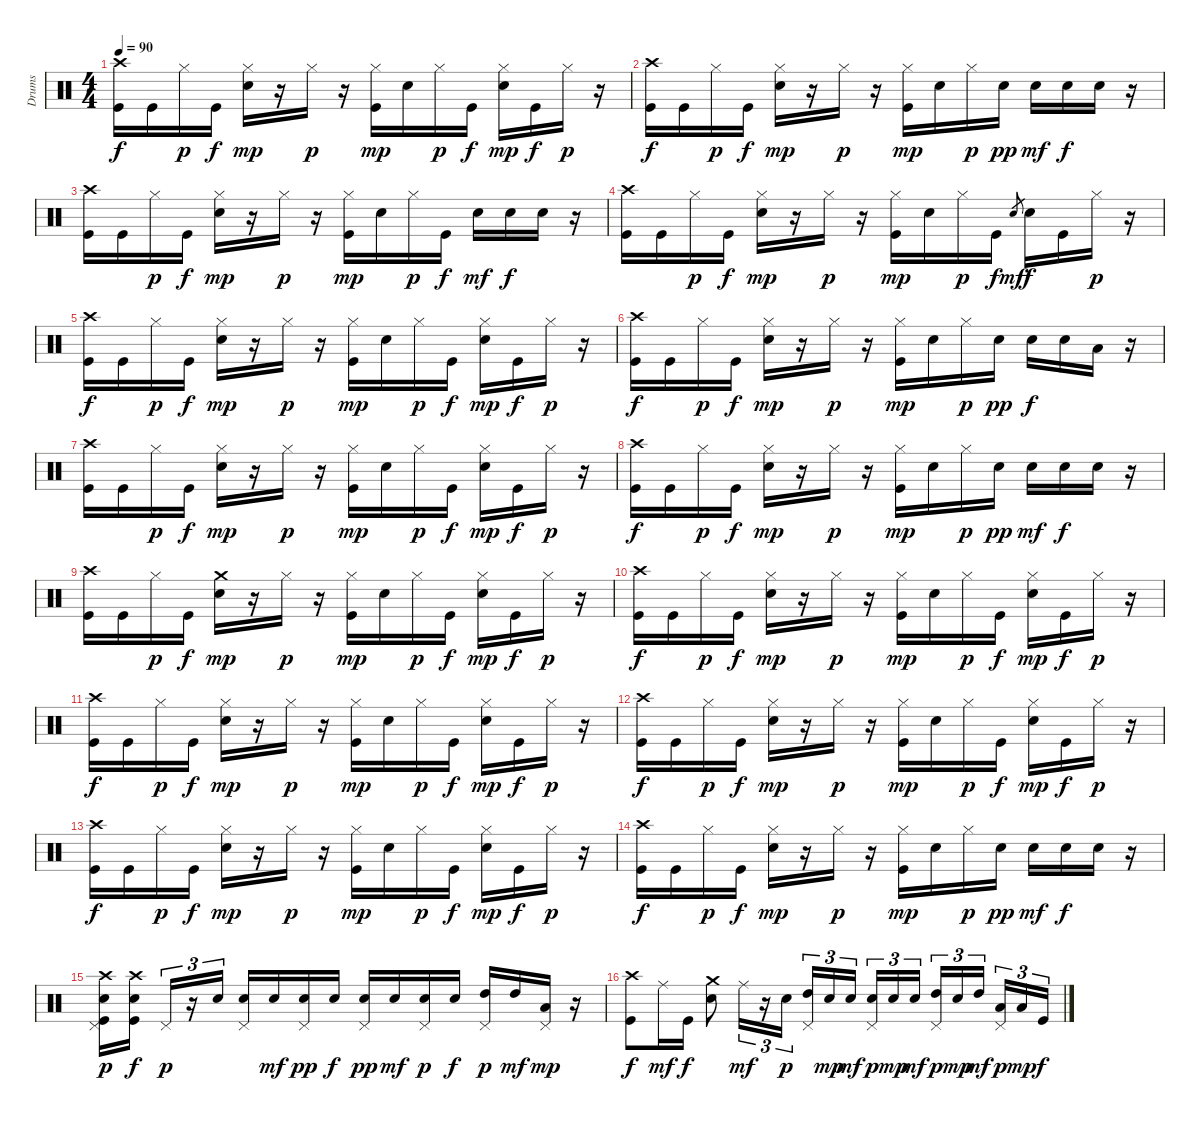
\track ("Drums" "Drums") {instrument percussion}
\staff {score}
\articulation defaults
\ts (4 4)
\tempo 90
\clef neutral
\ks c
("Crash high (hit)" "Kick (hit)").16{dy f} "Kick (hit)".16 "Hi-Hat (closed)".16{dy p} "Kick (hit)".16{dy f} ("Hi-Hat (closed)" "Snare (hit) 2").16{dy mp} r.16 "Hi-Hat (closed)".16{dy p} r.16 ("Hi-Hat (closed)" "Kick (hit)").16{dy mp} "Snare (hit) 2".16 "Hi-Hat (closed)".16{dy p} "Kick (hit)".16{dy f} ("Hi-Hat (closed)" "Snare (hit) 2").16{dy mp} "Kick (hit)".16{dy f} "Hi-Hat (closed)".16{dy p} r.16 |
("Crash high (hit)" "Kick (hit)").16{dy f} "Kick (hit)".16 "Hi-Hat (closed)".16{dy p} "Kick (hit)".16{dy f} ("Hi-Hat (closed)" "Snare (hit) 2").16{dy mp} r.16 "Hi-Hat (closed)".16{dy p} r.16 ("Hi-Hat (closed)" "Kick (hit)").16{dy mp} "Snare (hit) 2".16 "Hi-Hat (closed)".16{dy p} "Snare (hit) 2".16{dy pp} "Snare (hit) 2".16{dy mf} "Snare (hit) 2".16{dy f} "Snare (hit) 2".16 r.16 |
("Crash high (hit)" "Kick (hit)").16 "Kick (hit)".16 "Hi-Hat (closed)".16{dy p} "Kick (hit)".16{dy f} ("Hi-Hat (closed)" "Snare (hit) 2").16{dy mp} r.16 "Hi-Hat (closed)".16{dy p} r.16 ("Hi-Hat (closed)" "Kick (hit)").16{dy mp} "Snare (hit) 2".16 "Hi-Hat (closed)".16{dy p} "Kick (hit)".16{dy f} "Snare (hit) 2".16{dy mf} "Snare (hit) 2".16{dy f} "Snare (hit) 2".16 r.16 |
("Crash high (hit)" "Kick (hit)").16 "Kick (hit)".16 "Hi-Hat (closed)".16{dy p} "Kick (hit)".16{dy f} ("Hi-Hat (closed)" "Snare (hit) 2").16{dy mp} r.16 "Hi-Hat (closed)".16{dy p} r.16 ("Hi-Hat (closed)" "Kick (hit)").16{dy mp} "Snare (hit) 2".16 "Hi-Hat (closed)".16{dy p} "Kick (hit)".16{dy f} "Snare (hit) 2".8{gr dy mf} "Snare (hit) 2".16{dy f} "Kick (hit)".16 "Hi-Hat (closed)".16{dy p} r.16 |
("Crash high (hit)" "Kick (hit)").16{dy f} "Kick (hit)".16 "Hi-Hat (closed)".16{dy p} "Kick (hit)".16{dy f} ("Hi-Hat (closed)" "Snare (hit) 2").16{dy mp} r.16 "Hi-Hat (closed)".16{dy p} r.16 ("Hi-Hat (closed)" "Kick (hit)").16{dy mp} "Snare (hit) 2".16 "Hi-Hat (closed)".16{dy p} "Kick (hit)".16{dy f} ("Hi-Hat (closed)" "Snare (hit) 2").16{dy mp} "Kick (hit)".16{dy f} "Hi-Hat (closed)".16{dy p} r.16 |
("Crash high (hit)" "Kick (hit)").16{dy f} "Kick (hit)".16 "Hi-Hat (closed)".16{dy p} "Kick (hit)".16{dy f} ("Hi-Hat (closed)" "Snare (hit) 2").16{dy mp} r.16 "Hi-Hat (closed)".16{dy p} r.16 ("Hi-Hat (closed)" "Kick (hit)").16{dy mp} "Snare (hit) 2".16 "Hi-Hat (closed)".16{dy p} "Snare (hit) 2".16{dy pp} "Snare (hit) 2".16{dy f} "Snare (hit) 2".16 "Low Tom (hit)".16 r.16 |
("Crash high (hit)" "Kick (hit)").16 "Kick (hit)".16 "Hi-Hat (closed)".16{dy p} "Kick (hit)".16{dy f} ("Hi-Hat (closed)" "Snare (hit) 2").16{dy mp} r.16 "Hi-Hat (closed)".16{dy p} r.16 ("Hi-Hat (closed)" "Kick (hit)").16{dy mp} "Snare (hit) 2".16 "Hi-Hat (closed)".16{dy p} "Kick (hit)".16{dy f} ("Hi-Hat (closed)" "Snare (hit) 2").16{dy mp} "Kick (hit)".16{dy f} "Hi-Hat (closed)".16{dy p} r.16 |
("Crash high (hit)" "Kick (hit)").16{dy f} "Kick (hit)".16 "Hi-Hat (closed)".16{dy p} "Kick (hit)".16{dy f} ("Hi-Hat (closed)" "Snare (hit) 2").16{dy mp} r.16 "Hi-Hat (closed)".16{dy p} r.16 ("Hi-Hat (closed)" "Kick (hit)").16{dy mp} "Snare (hit) 2".16 "Hi-Hat (closed)".16{dy p} "Snare (hit) 2".16{dy pp} "Snare (hit) 2".16{dy mf} "Snare (hit) 2".16{dy f} "Snare (hit) 2".16 r.16 |
("Crash high (hit)" "Kick (hit)").16 "Kick (hit)".16 "Hi-Hat (closed)".16{dy p} "Kick (hit)".16{dy f} ("Crash medium (hit)" "Snare (hit) 2").16{dy mp} r.16 "Hi-Hat (closed)".16{dy p} r.16 ("Hi-Hat (closed)" "Kick (hit)").16{dy mp} "Snare (hit) 2".16 "Hi-Hat (closed)".16{dy p} "Kick (hit)".16{dy f} ("Hi-Hat (closed)" "Snare (hit) 2").16{dy mp} "Kick (hit)".16{dy f} "Hi-Hat (closed)".16{dy p} r.16 |
("Crash high (hit)" "Kick (hit)").16{dy f} "Kick (hit)".16 "Hi-Hat (closed)".16{dy p} "Kick (hit)".16{dy f} ("Hi-Hat (closed)" "Snare (hit) 2").16{dy mp} r.16 "Hi-Hat (closed)".16{dy p} r.16 ("Hi-Hat (closed)" "Kick (hit)").16{dy mp} "Snare (hit) 2".16 "Hi-Hat (closed)".16{dy p} "Kick (hit)".16{dy f} ("Hi-Hat (closed)" "Snare (hit) 2").16{dy mp} "Kick (hit)".16{dy f} "Hi-Hat (closed)".16{dy p} r.16 |
("Crash high (hit)" "Kick (hit)").16{dy f} "Kick (hit)".16 "Hi-Hat (closed)".16{dy p} "Kick (hit)".16{dy f} ("Hi-Hat (closed)" "Snare (hit) 2").16{dy mp} r.16 "Hi-Hat (closed)".16{dy p} r.16 ("Hi-Hat (closed)" "Kick (hit)").16{dy mp} "Snare (hit) 2".16 "Hi-Hat (closed)".16{dy p} "Kick (hit)".16{dy f} ("Hi-Hat (closed)" "Snare (hit) 2").16{dy mp} "Kick (hit)".16{dy f} "Hi-Hat (closed)".16{dy p} r.16 |
("Crash high (hit)" "Kick (hit)").16{dy f} "Kick (hit)".16 "Hi-Hat (closed)".16{dy p} "Kick (hit)".16{dy f} ("Hi-Hat (closed)" "Snare (hit) 2").16{dy mp} r.16 "Hi-Hat (closed)".16{dy p} r.16 ("Hi-Hat (closed)" "Kick (hit)").16{dy mp} "Snare (hit) 2".16 "Hi-Hat (closed)".16{dy p} "Kick (hit)".16{dy f} ("Hi-Hat (closed)" "Snare (hit) 2").16{dy mp} "Kick (hit)".16{dy f} "Hi-Hat (closed)".16{dy p} r.16 |
("Crash high (hit)" "Kick (hit)").16{dy f} "Kick (hit)".16 "Hi-Hat (closed)".16{dy p} "Kick (hit)".16{dy f} ("Hi-Hat (closed)" "Snare (hit) 2").16{dy mp} r.16 "Hi-Hat (closed)".16{dy p} r.16 ("Hi-Hat (closed)" "Kick (hit)").16{dy mp} "Snare (hit) 2".16 "Hi-Hat (closed)".16{dy p} "Kick (hit)".16{dy f} ("Hi-Hat (closed)" "Snare (hit) 2").16{dy mp} "Kick (hit)".16{dy f} "Hi-Hat (closed)".16{dy p} r.16 |
("Crash high (hit)" "Kick (hit)").16{dy f} "Kick (hit)".16 "Hi-Hat (closed)".16{dy p} "Kick (hit)".16{dy f} ("Hi-Hat (closed)" "Snare (hit) 2").16{dy mp} r.16 "Hi-Hat (closed)".16{dy p} r.16 ("Hi-Hat (closed)" "Kick (hit)").16{dy mp} "Snare (hit) 2".16 "Hi-Hat (closed)".16{dy p} "Snare (hit) 2".16{dy pp} "Snare (hit) 2".16{dy mf} "Snare (hit) 2".16{dy f} "Snare (hit) 2".16 r.16 |
("Crash high (hit)" "Pedal Hi-Hat (hit)" "Snare (hit) 2" "Kick (hit)").16{dy p} ("Crash high (hit)" "Snare (hit) 2" "Kick (hit)").16{dy f} "Pedal Hi-Hat (hit)".16{tu (3 2) dy p} r.16{tu (3 2)} "Snare (hit) 2".16{tu (3 2)} ("Pedal Hi-Hat (hit)" "Snare (hit) 2").16 "Snare (hit) 2".16{dy mf} ("Pedal Hi-Hat (hit)" "Snare (hit) 2").16{dy pp} "Snare (hit) 2".16{dy f} ("Pedal Hi-Hat (hit)" "Snare (hit) 2").16{dy pp} "Snare (hit) 2".16{dy mf} ("Pedal Hi-Hat (hit)" "Snare (hit) 2").16{dy p} "Snare (hit) 2".16{dy f} ("Pedal Hi-Hat (hit)" "High Tom (hit)").16{dy p} "High Tom (hit)".16{dy mf} ("Pedal Hi-Hat (hit)" "Low Tom (hit)").16{dy mp} r.16 |
("Crash high (hit)" "Kick (hit)").8{dy f} "Ride (middle)".16{dy mf} "Kick (hit)".16{dy f} ("Crash medium (hit)" "Snare (hit) 2").8 "Ride (middle)".16{tu (3 2) dy mf} r.16{tu (3 2)} "Snare (hit) 2".16{tu (3 2) dy p} ("Pedal Hi-Hat (hit)" "High Tom (hit)").16{tu (3 2)} "Snare (hit) 2".16{tu (3 2) dy mp} "Snare (hit) 2".16{tu (3 2) dy mf} ("Pedal Hi-Hat (hit)" "Snare (hit) 2").16{tu (3 2) dy p} "Snare (hit) 2".16{tu (3 2) dy mp} "Snare (hit) 2".16{tu (3 2) dy mf} ("Pedal Hi-Hat (hit)" "High Tom (hit)").16{tu (3 2) dy p} "Snare (hit) 2".16{tu (3 2) dy mp} "High Tom (hit)".16{tu (3 2) dy mf} ("Pedal Hi-Hat (hit)" "Low Tom (hit)").16{tu (3 2) dy p} "Low Tom (hit)".16{tu (3 2) dy mp} "Kick (hit)".16{tu (3 2) dy f}
